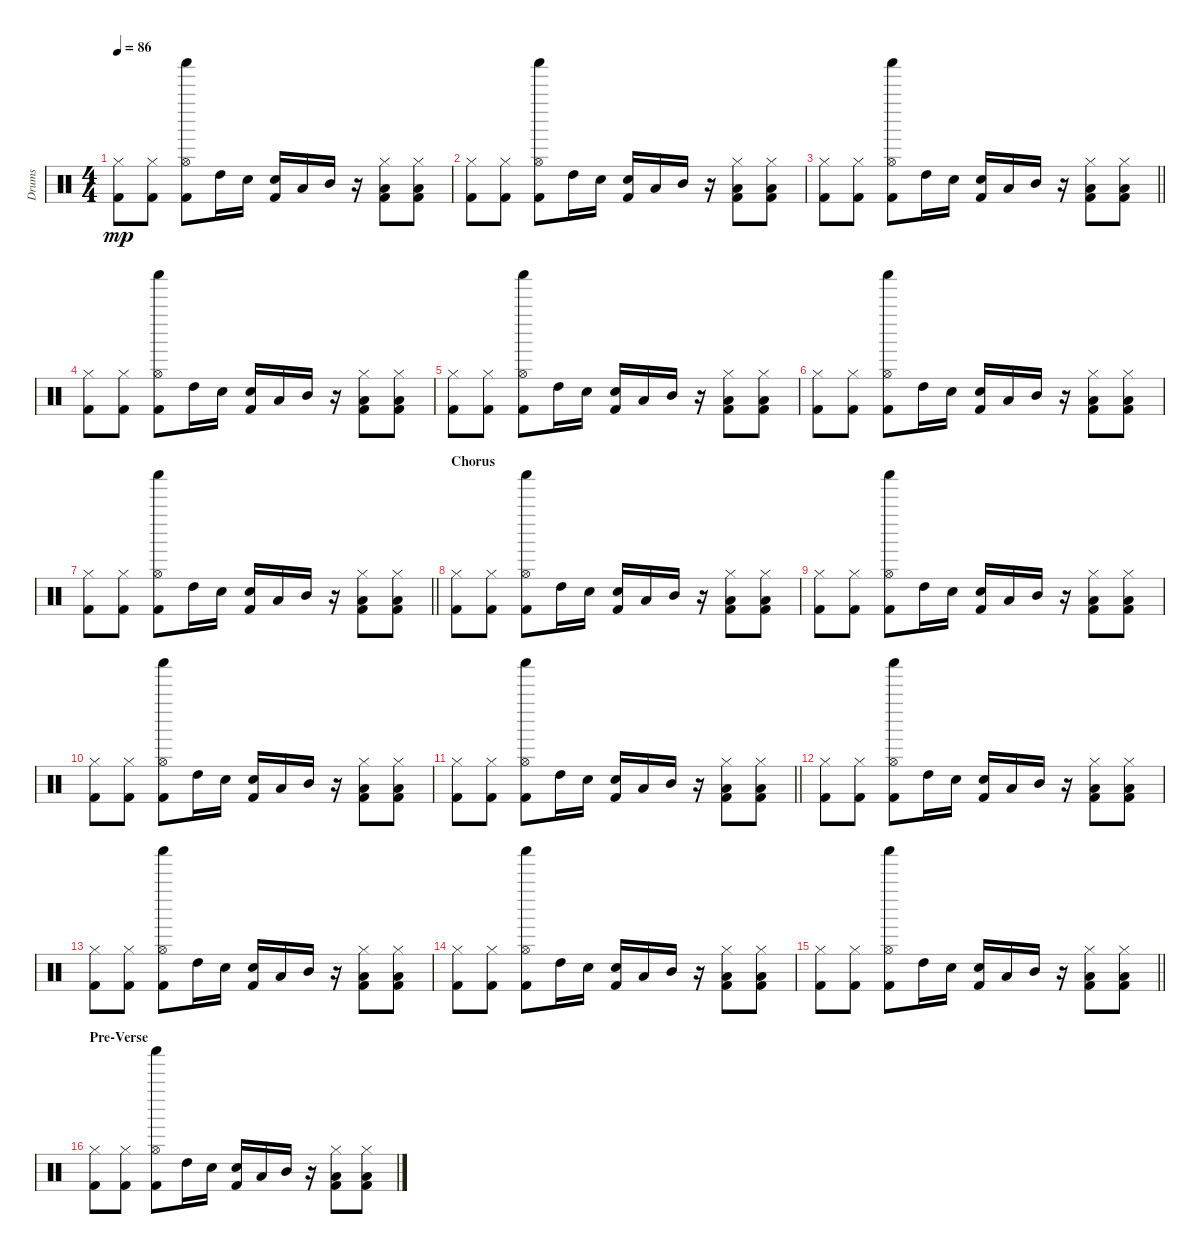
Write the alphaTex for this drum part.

\track ("Drums" "Drums") {instrument percussion}
\staff
\articulation defaults
\ts (4 4)
\tempo 86
\clef neutral
\ks c
("Hi-Hat (closed)" "Kick (hit) 2").8{dy mp} ("Hi-Hat (closed)" "Kick (hit) 2").8 ("Hi-Hat (open)" "Shaker (hit)" "Kick (hit) 2").8 "High Tom (hit)".16 "Electric Snare (hit)".16 ("Electric Snare (hit)" "Kick (hit) 2").16 "Low Tom (hit)".16 "Mid Tom (hit)".16 r.16 ("Hi-Hat (closed)" "Low Tom (hit)" "Kick (hit) 2").8 ("Hi-Hat (closed)" "Low Tom (hit)" "Kick (hit) 2").8 |
("Hi-Hat (closed)" "Kick (hit) 2").8 ("Hi-Hat (closed)" "Kick (hit) 2").8 ("Hi-Hat (open)" "Shaker (hit)" "Kick (hit) 2").8 "High Tom (hit)".16 "Electric Snare (hit)".16 ("Electric Snare (hit)" "Kick (hit) 2").16 "Low Tom (hit)".16 "Mid Tom (hit)".16 r.16 ("Hi-Hat (closed)" "Low Tom (hit)" "Kick (hit) 2").8 ("Hi-Hat (closed)" "Low Tom (hit)" "Kick (hit) 2").8 |
\barLineRight lightlight
("Hi-Hat (closed)" "Kick (hit) 2").8 ("Hi-Hat (closed)" "Kick (hit) 2").8 ("Hi-Hat (open)" "Shaker (hit)" "Kick (hit) 2").8 "High Tom (hit)".16 "Electric Snare (hit)".16 ("Electric Snare (hit)" "Kick (hit) 2").16 "Low Tom (hit)".16 "Mid Tom (hit)".16 r.16 ("Hi-Hat (closed)" "Low Tom (hit)" "Kick (hit) 2").8 ("Hi-Hat (closed)" "Low Tom (hit)" "Kick (hit) 2").8 |
("Hi-Hat (closed)" "Kick (hit) 2").8 ("Hi-Hat (closed)" "Kick (hit) 2").8 ("Hi-Hat (open)" "Shaker (hit)" "Kick (hit) 2").8 "High Tom (hit)".16 "Electric Snare (hit)".16 ("Electric Snare (hit)" "Kick (hit) 2").16 "Low Tom (hit)".16 "Mid Tom (hit)".16 r.16 ("Hi-Hat (closed)" "Low Tom (hit)" "Kick (hit) 2").8 ("Hi-Hat (closed)" "Low Tom (hit)" "Kick (hit) 2").8 |
("Hi-Hat (closed)" "Kick (hit) 2").8 ("Hi-Hat (closed)" "Kick (hit) 2").8 ("Hi-Hat (open)" "Shaker (hit)" "Kick (hit) 2").8 "High Tom (hit)".16 "Electric Snare (hit)".16 ("Electric Snare (hit)" "Kick (hit) 2").16 "Low Tom (hit)".16 "Mid Tom (hit)".16 r.16 ("Hi-Hat (closed)" "Low Tom (hit)" "Kick (hit) 2").8 ("Hi-Hat (closed)" "Low Tom (hit)" "Kick (hit) 2").8 |
("Hi-Hat (closed)" "Kick (hit) 2").8 ("Hi-Hat (closed)" "Kick (hit) 2").8 ("Hi-Hat (open)" "Shaker (hit)" "Kick (hit) 2").8 "High Tom (hit)".16 "Electric Snare (hit)".16 ("Electric Snare (hit)" "Kick (hit) 2").16 "Low Tom (hit)".16 "Mid Tom (hit)".16 r.16 ("Hi-Hat (closed)" "Low Tom (hit)" "Kick (hit) 2").8 ("Hi-Hat (closed)" "Low Tom (hit)" "Kick (hit) 2").8 |
\barLineRight lightlight
("Hi-Hat (closed)" "Kick (hit) 2").8 ("Hi-Hat (closed)" "Kick (hit) 2").8 ("Hi-Hat (open)" "Shaker (hit)" "Kick (hit) 2").8 "High Tom (hit)".16 "Electric Snare (hit)".16 ("Electric Snare (hit)" "Kick (hit) 2").16 "Low Tom (hit)".16 "Mid Tom (hit)".16 r.16 ("Hi-Hat (closed)" "Low Tom (hit)" "Kick (hit) 2").8 ("Hi-Hat (closed)" "Low Tom (hit)" "Kick (hit) 2").8 |
\section ("" "Chorus")
("Hi-Hat (closed)" "Kick (hit) 2").8 ("Hi-Hat (closed)" "Kick (hit) 2").8 ("Hi-Hat (open)" "Shaker (hit)" "Kick (hit) 2").8 "High Tom (hit)".16 "Electric Snare (hit)".16 ("Electric Snare (hit)" "Kick (hit) 2").16 "Low Tom (hit)".16 "Mid Tom (hit)".16 r.16 ("Hi-Hat (closed)" "Low Tom (hit)" "Kick (hit) 2").8 ("Hi-Hat (closed)" "Low Tom (hit)" "Kick (hit) 2").8 |
("Hi-Hat (closed)" "Kick (hit) 2").8 ("Hi-Hat (closed)" "Kick (hit) 2").8 ("Hi-Hat (open)" "Shaker (hit)" "Kick (hit) 2").8 "High Tom (hit)".16 "Electric Snare (hit)".16 ("Electric Snare (hit)" "Kick (hit) 2").16 "Low Tom (hit)".16 "Mid Tom (hit)".16 r.16 ("Hi-Hat (closed)" "Low Tom (hit)" "Kick (hit) 2").8 ("Hi-Hat (closed)" "Low Tom (hit)" "Kick (hit) 2").8 |
("Hi-Hat (closed)" "Kick (hit) 2").8 ("Hi-Hat (closed)" "Kick (hit) 2").8 ("Hi-Hat (open)" "Shaker (hit)" "Kick (hit) 2").8 "High Tom (hit)".16 "Electric Snare (hit)".16 ("Electric Snare (hit)" "Kick (hit) 2").16 "Low Tom (hit)".16 "Mid Tom (hit)".16 r.16 ("Hi-Hat (closed)" "Low Tom (hit)" "Kick (hit) 2").8 ("Hi-Hat (closed)" "Low Tom (hit)" "Kick (hit) 2").8 |
\barLineRight lightlight
("Hi-Hat (closed)" "Kick (hit) 2").8 ("Hi-Hat (closed)" "Kick (hit) 2").8 ("Hi-Hat (open)" "Shaker (hit)" "Kick (hit) 2").8 "High Tom (hit)".16 "Electric Snare (hit)".16 ("Electric Snare (hit)" "Kick (hit) 2").16 "Low Tom (hit)".16 "Mid Tom (hit)".16 r.16 ("Hi-Hat (closed)" "Low Tom (hit)" "Kick (hit) 2").8 ("Hi-Hat (closed)" "Low Tom (hit)" "Kick (hit) 2").8 |
("Hi-Hat (closed)" "Kick (hit) 2").8 ("Hi-Hat (closed)" "Kick (hit) 2").8 ("Hi-Hat (open)" "Shaker (hit)" "Kick (hit) 2").8 "High Tom (hit)".16 "Electric Snare (hit)".16 ("Electric Snare (hit)" "Kick (hit) 2").16 "Low Tom (hit)".16 "Mid Tom (hit)".16 r.16 ("Hi-Hat (closed)" "Low Tom (hit)" "Kick (hit) 2").8 ("Hi-Hat (closed)" "Low Tom (hit)" "Kick (hit) 2").8 |
("Hi-Hat (closed)" "Kick (hit) 2").8 ("Hi-Hat (closed)" "Kick (hit) 2").8 ("Hi-Hat (open)" "Shaker (hit)" "Kick (hit) 2").8 "High Tom (hit)".16 "Electric Snare (hit)".16 ("Electric Snare (hit)" "Kick (hit) 2").16 "Low Tom (hit)".16 "Mid Tom (hit)".16 r.16 ("Hi-Hat (closed)" "Low Tom (hit)" "Kick (hit) 2").8 ("Hi-Hat (closed)" "Low Tom (hit)" "Kick (hit) 2").8 |
("Hi-Hat (closed)" "Kick (hit) 2").8 ("Hi-Hat (closed)" "Kick (hit) 2").8 ("Hi-Hat (open)" "Shaker (hit)" "Kick (hit) 2").8 "High Tom (hit)".16 "Electric Snare (hit)".16 ("Electric Snare (hit)" "Kick (hit) 2").16 "Low Tom (hit)".16 "Mid Tom (hit)".16 r.16 ("Hi-Hat (closed)" "Low Tom (hit)" "Kick (hit) 2").8 ("Hi-Hat (closed)" "Low Tom (hit)" "Kick (hit) 2").8 |
\barLineRight lightlight
("Hi-Hat (closed)" "Kick (hit) 2").8 ("Hi-Hat (closed)" "Kick (hit) 2").8 ("Hi-Hat (open)" "Shaker (hit)" "Kick (hit) 2").8 "High Tom (hit)".16 "Electric Snare (hit)".16 ("Electric Snare (hit)" "Kick (hit) 2").16 "Low Tom (hit)".16 "Mid Tom (hit)".16 r.16 ("Hi-Hat (closed)" "Low Tom (hit)" "Kick (hit) 2").8 ("Hi-Hat (closed)" "Low Tom (hit)" "Kick (hit) 2").8 |
\section ("" "Pre-Verse")
("Hi-Hat (closed)" "Kick (hit) 2").8 ("Hi-Hat (closed)" "Kick (hit) 2").8 ("Hi-Hat (open)" "Shaker (hit)" "Kick (hit) 2").8 "High Tom (hit)".16 "Electric Snare (hit)".16 ("Electric Snare (hit)" "Kick (hit) 2").16 "Low Tom (hit)".16 "Mid Tom (hit)".16 r.16 ("Hi-Hat (closed)" "Low Tom (hit)" "Kick (hit) 2").8 ("Hi-Hat (closed)" "Low Tom (hit)" "Kick (hit) 2").8
